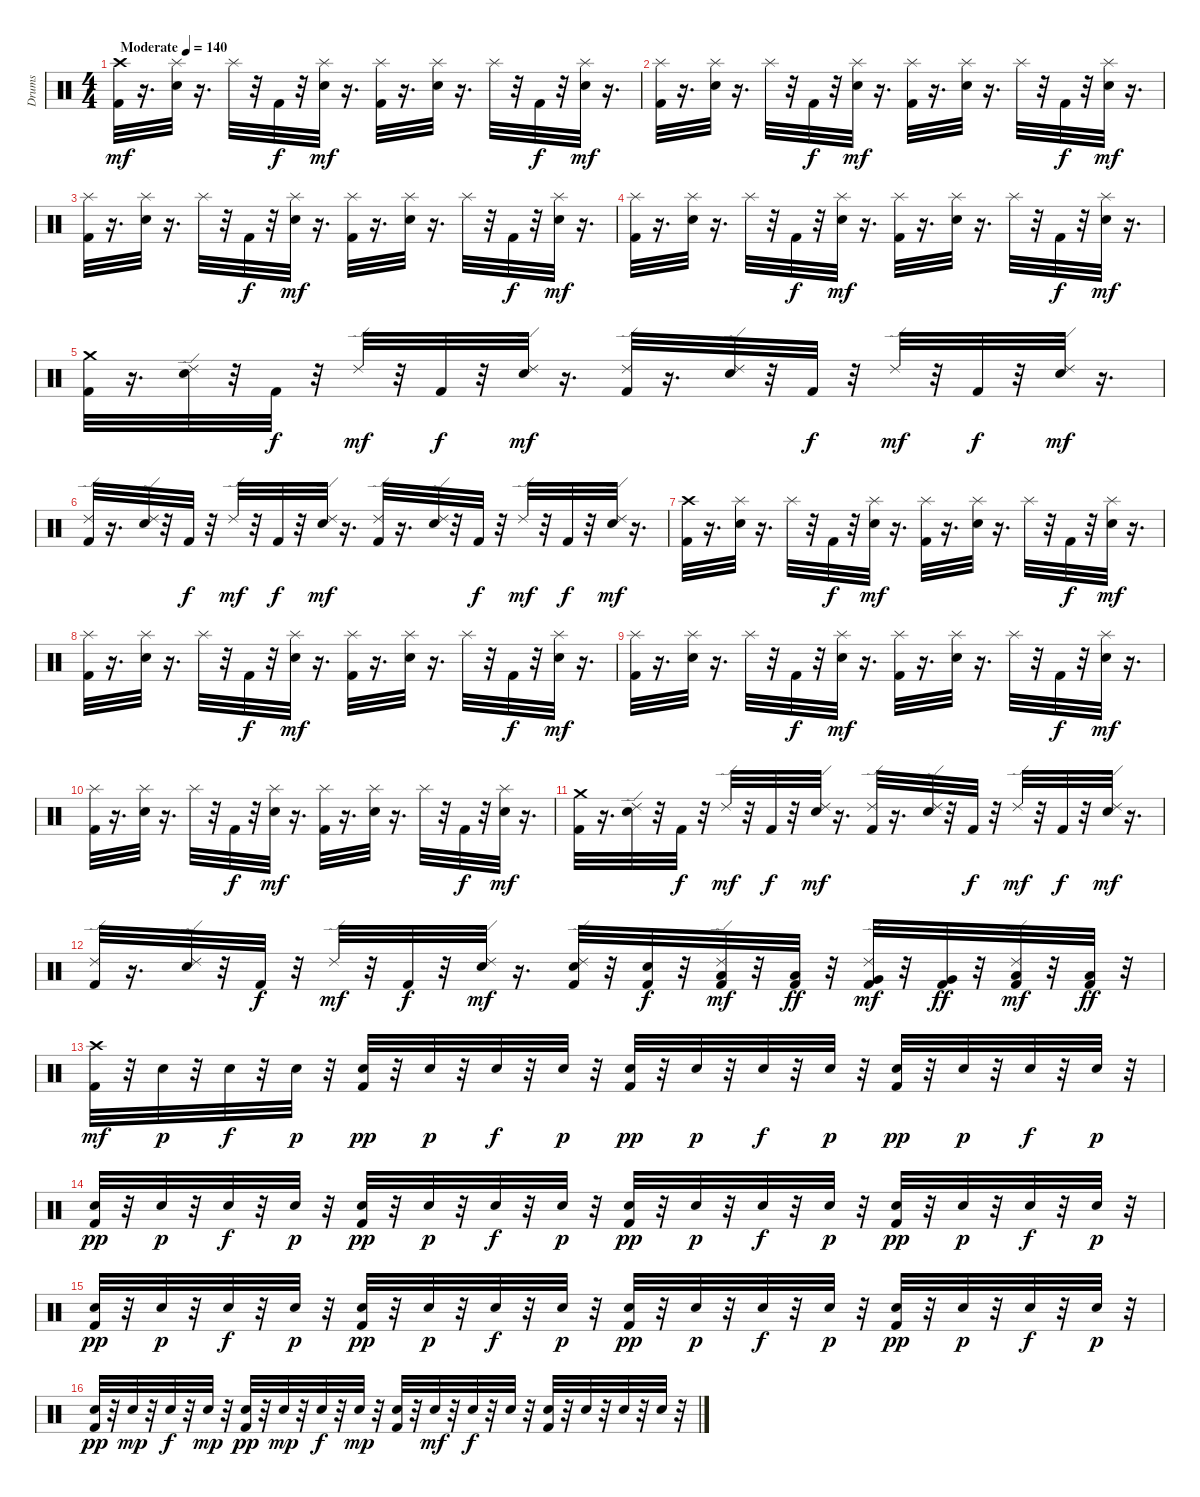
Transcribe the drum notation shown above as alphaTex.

\track ("Drums" "Drums") {instrument percussion}
\staff {score}
\articulation defaults
\ts (4 4)
\tempo (140 "Moderate")
\clef neutral
\ks c
("Kick (hit) 2" "Crash high (hit)").32{dy mf} r.16{d} ("Electric Snare (hit)" "Splash (hit)").32 r.16{d} "Splash (hit)".32 r.32 "Kick (hit) 2".32{dy f} r.32 ("Electric Snare (hit)" "Splash (hit)").32{dy mf} r.16{d} ("Kick (hit) 2" "Splash (hit)").32 r.16{d} ("Electric Snare (hit)" "Splash (hit)").32 r.16{d} "Splash (hit)".32 r.32 "Kick (hit) 2".32{dy f} r.32 ("Electric Snare (hit)" "Splash (hit)").32{dy mf} r.16{d} |
("Kick (hit) 2" "Splash (hit)").32 r.16{d} ("Electric Snare (hit)" "Splash (hit)").32 r.16{d} "Splash (hit)".32 r.32 "Kick (hit) 2".32{dy f} r.32 ("Electric Snare (hit)" "Splash (hit)").32{dy mf} r.16{d} ("Kick (hit) 2" "Splash (hit)").32 r.16{d} ("Electric Snare (hit)" "Splash (hit)").32 r.16{d} "Splash (hit)".32 r.32 "Kick (hit) 2".32{dy f} r.32 ("Electric Snare (hit)" "Splash (hit)").32{dy mf} r.16{d} |
("Kick (hit) 2" "Splash (hit)").32 r.16{d} ("Electric Snare (hit)" "Splash (hit)").32 r.16{d} "Splash (hit)".32 r.32 "Kick (hit) 2".32{dy f} r.32 ("Electric Snare (hit)" "Splash (hit)").32{dy mf} r.16{d} ("Kick (hit) 2" "Splash (hit)").32 r.16{d} ("Electric Snare (hit)" "Splash (hit)").32 r.16{d} "Splash (hit)".32 r.32 "Kick (hit) 2".32{dy f} r.32 ("Electric Snare (hit)" "Splash (hit)").32{dy mf} r.16{d} |
("Kick (hit) 2" "Splash (hit)").32 r.16{d} ("Electric Snare (hit)" "Splash (hit)").32 r.16{d} "Splash (hit)".32 r.32 "Kick (hit) 2".32{dy f} r.32 ("Electric Snare (hit)" "Splash (hit)").32{dy mf} r.16{d} ("Kick (hit) 2" "Splash (hit)").32 r.16{d} ("Electric Snare (hit)" "Splash (hit)").32 r.16{d} "Splash (hit)".32 r.32 "Kick (hit) 2".32{dy f} r.32 ("Electric Snare (hit)" "Splash (hit)").32{dy mf} r.16{d} |
("Kick (hit) 2" "Crash medium (hit)").32 r.16{d} ("Electric Snare (hit)" "Ride (edge) 2").32 r.32 "Kick (hit) 2".32{dy f} r.32 "Ride (edge) 2".32{dy mf} r.32 "Kick (hit) 2".32{dy f} r.32 ("Electric Snare (hit)" "Ride (edge) 2").32{dy mf} r.16{d} ("Kick (hit) 2" "Ride (edge) 2").32 r.16{d} ("Electric Snare (hit)" "Ride (edge) 2").32 r.32 "Kick (hit) 2".32{dy f} r.32 "Ride (edge) 2".32{dy mf} r.32 "Kick (hit) 2".32{dy f} r.32 ("Electric Snare (hit)" "Ride (edge) 2").32{dy mf} r.16{d} |
("Kick (hit) 2" "Ride (edge) 2").32 r.16{d} ("Electric Snare (hit)" "Ride (edge) 2").32 r.32 "Kick (hit) 2".32{dy f} r.32 "Ride (edge) 2".32{dy mf} r.32 "Kick (hit) 2".32{dy f} r.32 ("Electric Snare (hit)" "Ride (edge) 2").32{dy mf} r.16{d} ("Kick (hit) 2" "Ride (edge) 2").32 r.16{d} ("Electric Snare (hit)" "Ride (edge) 2").32 r.32 "Kick (hit) 2".32{dy f} r.32 "Ride (edge) 2".32{dy mf} r.32 "Kick (hit) 2".32{dy f} r.32 ("Electric Snare (hit)" "Ride (edge) 2").32{dy mf} r.16{d} |
("Kick (hit) 2" "Crash high (hit)").32 r.16{d} ("Electric Snare (hit)" "Splash (hit)").32 r.16{d} "Splash (hit)".32 r.32 "Kick (hit) 2".32{dy f} r.32 ("Electric Snare (hit)" "Splash (hit)").32{dy mf} r.16{d} ("Kick (hit) 2" "Splash (hit)").32 r.16{d} ("Electric Snare (hit)" "Splash (hit)").32 r.16{d} "Splash (hit)".32 r.32 "Kick (hit) 2".32{dy f} r.32 ("Electric Snare (hit)" "Splash (hit)").32{dy mf} r.16{d} |
("Kick (hit) 2" "Splash (hit)").32 r.16{d} ("Electric Snare (hit)" "Splash (hit)").32 r.16{d} "Splash (hit)".32 r.32 "Kick (hit) 2".32{dy f} r.32 ("Electric Snare (hit)" "Splash (hit)").32{dy mf} r.16{d} ("Kick (hit) 2" "Splash (hit)").32 r.16{d} ("Electric Snare (hit)" "Splash (hit)").32 r.16{d} "Splash (hit)".32 r.32 "Kick (hit) 2".32{dy f} r.32 ("Electric Snare (hit)" "Splash (hit)").32{dy mf} r.16{d} |
("Kick (hit) 2" "Splash (hit)").32 r.16{d} ("Electric Snare (hit)" "Splash (hit)").32 r.16{d} "Splash (hit)".32 r.32 "Kick (hit) 2".32{dy f} r.32 ("Electric Snare (hit)" "Splash (hit)").32{dy mf} r.16{d} ("Kick (hit) 2" "Splash (hit)").32 r.16{d} ("Electric Snare (hit)" "Splash (hit)").32 r.16{d} "Splash (hit)".32 r.32 "Kick (hit) 2".32{dy f} r.32 ("Electric Snare (hit)" "Splash (hit)").32{dy mf} r.16{d} |
("Kick (hit) 2" "Splash (hit)").32 r.16{d} ("Electric Snare (hit)" "Splash (hit)").32 r.16{d} "Splash (hit)".32 r.32 "Kick (hit) 2".32{dy f} r.32 ("Electric Snare (hit)" "Splash (hit)").32{dy mf} r.16{d} ("Kick (hit) 2" "Splash (hit)").32 r.16{d} ("Electric Snare (hit)" "Splash (hit)").32 r.16{d} "Splash (hit)".32 r.32 "Kick (hit) 2".32{dy f} r.32 ("Electric Snare (hit)" "Splash (hit)").32{dy mf} r.16{d} |
("Kick (hit) 2" "Crash medium (hit)").32 r.16{d} ("Electric Snare (hit)" "Ride (edge) 2").32 r.32 "Kick (hit) 2".32{dy f} r.32 "Ride (edge) 2".32{dy mf} r.32 "Kick (hit) 2".32{dy f} r.32 ("Electric Snare (hit)" "Ride (edge) 2").32{dy mf} r.16{d} ("Kick (hit) 2" "Ride (edge) 2").32 r.16{d} ("Electric Snare (hit)" "Ride (edge) 2").32 r.32 "Kick (hit) 2".32{dy f} r.32 "Ride (edge) 2".32{dy mf} r.32 "Kick (hit) 2".32{dy f} r.32 ("Electric Snare (hit)" "Ride (edge) 2").32{dy mf} r.16{d} |
("Kick (hit) 2" "Ride (edge) 2").32 r.16{d} ("Electric Snare (hit)" "Ride (edge) 2").32 r.32 "Kick (hit) 2".32{dy f} r.32 "Ride (edge) 2".32{dy mf} r.32 "Kick (hit) 2".32{dy f} r.32 ("Electric Snare (hit)" "Ride (edge) 2").32{dy mf} r.16{d} ("Kick (hit) 2" "Electric Snare (hit)" "Ride (edge) 2").32 r.32 ("Kick (hit) 2" "Electric Snare (hit)").32{dy f} r.32 ("Kick (hit) 2" "Low Tom (hit)" "Ride (edge) 2").32{dy mf} r.32 ("Kick (hit) 2" "Low Tom (hit)").32{dy ff} r.32 ("Kick (hit) 2" "Very Low Tom (hit)" "Ride (edge) 2").32{dy mf} r.32 ("Kick (hit) 2" "Very Low Tom (hit)").32{dy ff} r.32 ("Kick (hit) 2" "Low Floor Tom (hit)" "Ride (edge) 2").32{dy mf} r.32 ("Kick (hit) 2" "Low Floor Tom (hit)").32{dy ff} r.32 |
("Kick (hit) 2" "Crash high (hit)").32{dy mf} r.32 "Electric Snare (hit)".32{dy p} r.32 "Electric Snare (hit)".32{dy f} r.32 "Electric Snare (hit)".32{dy p} r.32 ("Kick (hit) 2" "Electric Snare (hit)").32{dy pp} r.32 "Electric Snare (hit)".32{dy p} r.32 "Electric Snare (hit)".32{dy f} r.32 "Electric Snare (hit)".32{dy p} r.32 ("Kick (hit) 2" "Electric Snare (hit)").32{dy pp} r.32 "Electric Snare (hit)".32{dy p} r.32 "Electric Snare (hit)".32{dy f} r.32 "Electric Snare (hit)".32{dy p} r.32 ("Kick (hit) 2" "Electric Snare (hit)").32{dy pp} r.32 "Electric Snare (hit)".32{dy p} r.32 "Electric Snare (hit)".32{dy f} r.32 "Electric Snare (hit)".32{dy p} r.32 |
("Kick (hit) 2" "Electric Snare (hit)").32{dy pp} r.32 "Electric Snare (hit)".32{dy p} r.32 "Electric Snare (hit)".32{dy f} r.32 "Electric Snare (hit)".32{dy p} r.32 ("Kick (hit) 2" "Electric Snare (hit)").32{dy pp} r.32 "Electric Snare (hit)".32{dy p} r.32 "Electric Snare (hit)".32{dy f} r.32 "Electric Snare (hit)".32{dy p} r.32 ("Kick (hit) 2" "Electric Snare (hit)").32{dy pp} r.32 "Electric Snare (hit)".32{dy p} r.32 "Electric Snare (hit)".32{dy f} r.32 "Electric Snare (hit)".32{dy p} r.32 ("Kick (hit) 2" "Electric Snare (hit)").32{dy pp} r.32 "Electric Snare (hit)".32{dy p} r.32 "Electric Snare (hit)".32{dy f} r.32 "Electric Snare (hit)".32{dy p} r.32 |
("Kick (hit) 2" "Electric Snare (hit)").32{dy pp} r.32 "Electric Snare (hit)".32{dy p} r.32 "Electric Snare (hit)".32{dy f} r.32 "Electric Snare (hit)".32{dy p} r.32 ("Kick (hit) 2" "Electric Snare (hit)").32{dy pp} r.32 "Electric Snare (hit)".32{dy p} r.32 "Electric Snare (hit)".32{dy f} r.32 "Electric Snare (hit)".32{dy p} r.32 ("Kick (hit) 2" "Electric Snare (hit)").32{dy pp} r.32 "Electric Snare (hit)".32{dy p} r.32 "Electric Snare (hit)".32{dy f} r.32 "Electric Snare (hit)".32{dy p} r.32 ("Kick (hit) 2" "Electric Snare (hit)").32{dy pp} r.32 "Electric Snare (hit)".32{dy p} r.32 "Electric Snare (hit)".32{dy f} r.32 "Electric Snare (hit)".32{dy p} r.32 |
("Kick (hit) 2" "Electric Snare (hit)").32{dy pp} r.32 "Electric Snare (hit)".32{dy mp} r.32 "Electric Snare (hit)".32{dy f} r.32 "Electric Snare (hit)".32{dy mp} r.32 ("Kick (hit) 2" "Electric Snare (hit)").32{dy pp} r.32 "Electric Snare (hit)".32{dy mp} r.32 "Electric Snare (hit)".32{dy f} r.32 "Electric Snare (hit)".32{dy mp} r.32 ("Kick (hit) 2" "Electric Snare (hit)").32 r.32 "Electric Snare (hit)".32{dy mf} r.32 "Electric Snare (hit)".32{dy f} r.32 "Electric Snare (hit)".32 r.32 ("Kick (hit) 2" "Electric Snare (hit)").32 r.32 "Electric Snare (hit)".32 r.32 "Electric Snare (hit)".32 r.32 "Electric Snare (hit)".32 r.32
